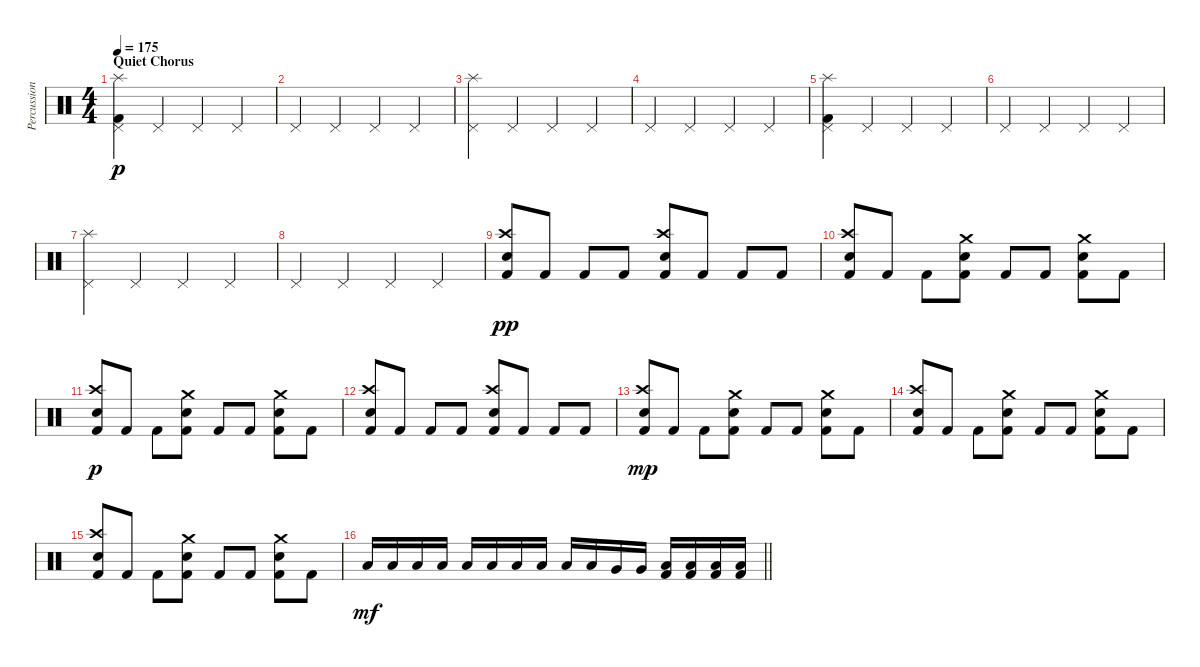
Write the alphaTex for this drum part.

\track ("Percussion" "Percussion") {instrument percussion}
\staff {score}
\articulation defaults
\ts (4 4)
\section ("" "Quiet Chorus")
\tempo 175
\clef neutral
\ks c
("Splash (hit)" "Pedal Hi-Hat (hit)" "Kick (hit) 2").4{dy p} "Pedal Hi-Hat (hit)".4 "Pedal Hi-Hat (hit)".4 "Pedal Hi-Hat (hit)".4 |
"Pedal Hi-Hat (hit)".4 "Pedal Hi-Hat (hit)".4 "Pedal Hi-Hat (hit)".4 "Pedal Hi-Hat (hit)".4 |
("Splash (hit)" "Pedal Hi-Hat (hit)").4 "Pedal Hi-Hat (hit)".4 "Pedal Hi-Hat (hit)".4 "Pedal Hi-Hat (hit)".4 |
"Pedal Hi-Hat (hit)".4 "Pedal Hi-Hat (hit)".4 "Pedal Hi-Hat (hit)".4 "Pedal Hi-Hat (hit)".4 |
("Splash (hit)" "Pedal Hi-Hat (hit)" "Kick (hit) 2").4 "Pedal Hi-Hat (hit)".4 "Pedal Hi-Hat (hit)".4 "Pedal Hi-Hat (hit)".4 |
"Pedal Hi-Hat (hit)".4 "Pedal Hi-Hat (hit)".4 "Pedal Hi-Hat (hit)".4 "Pedal Hi-Hat (hit)".4 |
("Splash (hit)" "Pedal Hi-Hat (hit)").4 "Pedal Hi-Hat (hit)".4 "Pedal Hi-Hat (hit)".4 "Pedal Hi-Hat (hit)".4 |
"Pedal Hi-Hat (hit)".4 "Pedal Hi-Hat (hit)".4 "Pedal Hi-Hat (hit)".4 "Pedal Hi-Hat (hit)".4 |
("Crash high (hit)" "Snare (hit) 2" "Kick (hit) 2").8{dy pp} "Kick (hit) 2".8 "Kick (hit) 2".8 "Kick (hit) 2".8 ("Crash high (hit)" "Snare (hit) 2" "Kick (hit) 2").8 "Kick (hit) 2".8 "Kick (hit) 2".8 "Kick (hit) 2".8 |
("Crash high (hit)" "Snare (hit) 2" "Kick (hit) 2").8 "Kick (hit) 2".8 "Kick (hit) 2".8 ("Crash medium (hit)" "Snare (hit) 2" "Kick (hit) 2").8 "Kick (hit) 2".8 "Kick (hit) 2".8 ("Crash medium (hit)" "Snare (hit) 2" "Kick (hit) 2").8 "Kick (hit) 2".8 |
("Crash high (hit)" "Snare (hit) 2" "Kick (hit) 2").8{dy p} "Kick (hit) 2".8 "Kick (hit) 2".8 ("Crash medium (hit)" "Snare (hit) 2" "Kick (hit) 2").8 "Kick (hit) 2".8 "Kick (hit) 2".8 ("Crash medium (hit)" "Snare (hit) 2" "Kick (hit) 2").8 "Kick (hit) 2".8 |
("Crash high (hit)" "Snare (hit) 2" "Kick (hit) 2").8 "Kick (hit) 2".8 "Kick (hit) 2".8 "Kick (hit) 2".8 ("Crash high (hit)" "Snare (hit) 2" "Kick (hit) 2").8 "Kick (hit) 2".8 "Kick (hit) 2".8 "Kick (hit) 2".8 |
("Crash high (hit)" "Snare (hit) 2" "Kick (hit) 2").8{dy mp} "Kick (hit) 2".8 "Kick (hit) 2".8 ("Crash medium (hit)" "Snare (hit) 2" "Kick (hit) 2").8 "Kick (hit) 2".8 "Kick (hit) 2".8 ("Crash medium (hit)" "Snare (hit) 2" "Kick (hit) 2").8 "Kick (hit) 2".8 |
("Crash high (hit)" "Snare (hit) 2" "Kick (hit) 2").8 "Kick (hit) 2".8 "Kick (hit) 2".8 ("Crash medium (hit)" "Snare (hit) 2" "Kick (hit) 2").8 "Kick (hit) 2".8 "Kick (hit) 2".8 ("Crash medium (hit)" "Snare (hit) 2" "Kick (hit) 2").8 "Kick (hit) 2".8 |
("Crash high (hit)" "Snare (hit) 2" "Kick (hit) 2").8 "Kick (hit) 2".8 "Kick (hit) 2".8 ("Crash medium (hit)" "Snare (hit) 2" "Kick (hit) 2").8 "Kick (hit) 2".8 "Kick (hit) 2".8 ("Crash medium (hit)" "Snare (hit) 2" "Kick (hit) 2").8 "Kick (hit) 2".8 |
\barLineRight lightlight "Low Tom (hit)".16{dy mf} "Low Tom (hit)".16 "Low Tom (hit)".16 "Low Tom (hit)".16 "Low Tom (hit)".16 "Low Tom (hit)".16 "Low Tom (hit)".16 "Low Tom (hit)".16 "Low Tom (hit)".16 "Low Tom (hit)".16 "Very Low Tom (hit)".16 "Very Low Tom (hit)".16
("Low Floor Tom (hit)" "Kick (hit) 2").16 ("Low Floor Tom (hit)" "Kick (hit) 2").16 ("Low Tom (hit)" "Kick (hit) 2").16 ("Low Tom (hit)" "Kick (hit) 2").16
